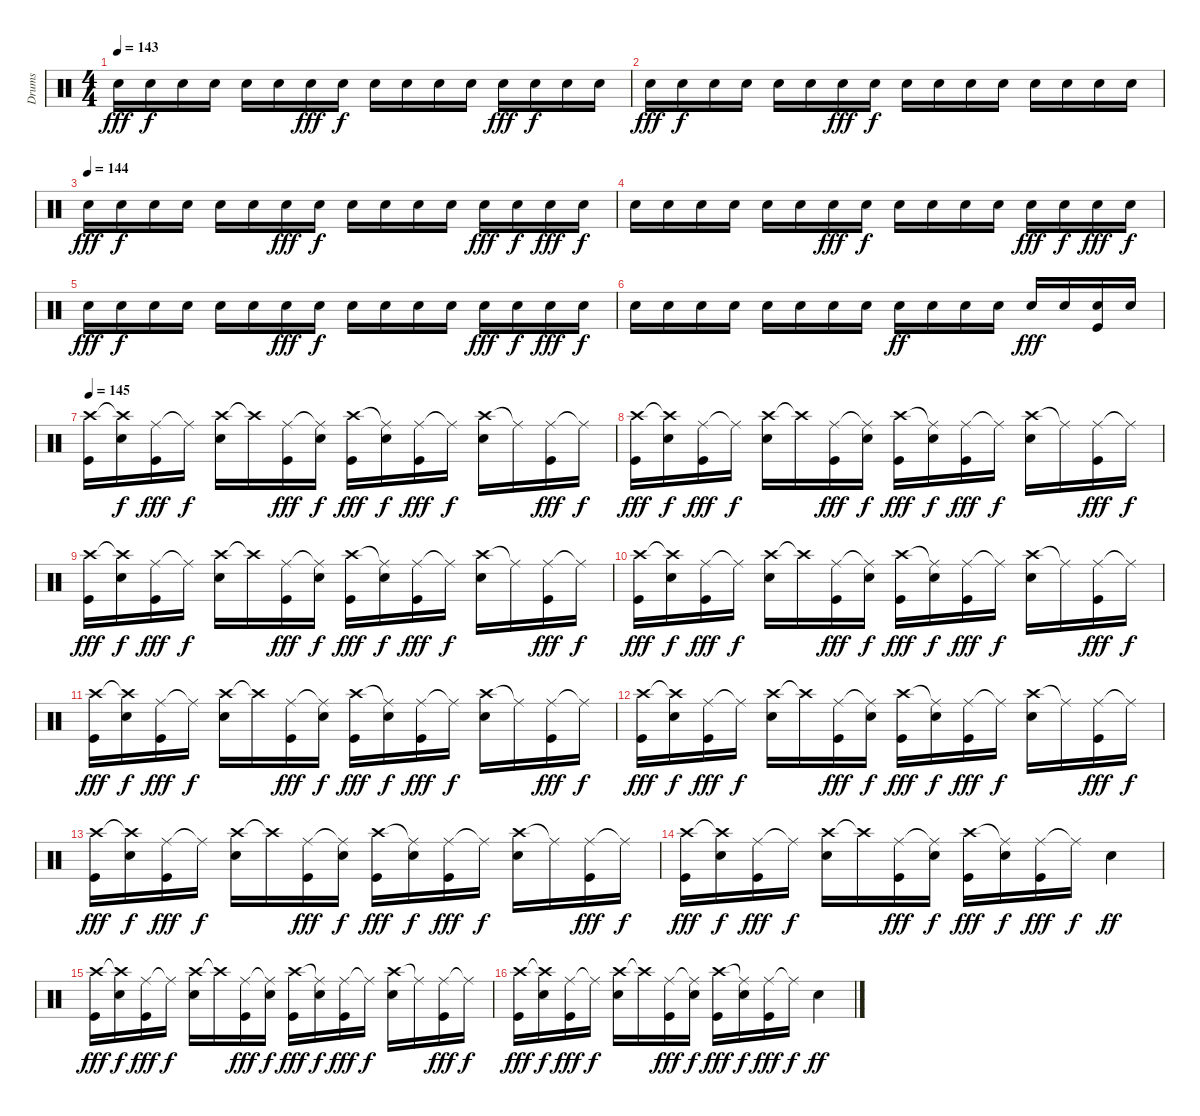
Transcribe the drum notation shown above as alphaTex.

\track ("Drums" "Drums") {instrument percussion}
\staff {score}
\articulation defaults
\ts (4 4)
\tempo 143
\clef neutral
\ks c "Snare (hit) 2".16{dy fff volume 11} "Snare (hit) 2".16{dy f} "Snare (hit) 2".16 "Snare (hit) 2".16 "Snare (hit) 2".16 "Snare (hit) 2".16 "Snare (hit) 2".16{dy fff} "Snare (hit) 2".16{dy f} "Snare (hit) 2".16 "Snare (hit) 2".16 "Snare (hit) 2".16 "Snare (hit) 2".16 "Snare (hit) 2".16{dy fff} "Snare (hit) 2".16{dy f} "Snare (hit) 2".16 "Snare (hit) 2".16
|
"Snare (hit) 2".16{dy fff} "Snare (hit) 2".16{dy f} "Snare (hit) 2".16 "Snare (hit) 2".16 "Snare (hit) 2".16 "Snare (hit) 2".16 "Snare (hit) 2".16{dy fff} "Snare (hit) 2".16{dy f} "Snare (hit) 2".16 "Snare (hit) 2".16 "Snare (hit) 2".16 "Snare (hit) 2".16 "Snare (hit) 2".16 "Snare (hit) 2".16 "Snare (hit) 2".16 "Snare (hit) 2".16 |
\tempo (144)
"Snare (hit) 2".16{dy fff} "Snare (hit) 2".16{dy f} "Snare (hit) 2".16 "Snare (hit) 2".16 "Snare (hit) 2".16 "Snare (hit) 2".16 "Snare (hit) 2".16{dy fff} "Snare (hit) 2".16{dy f} "Snare (hit) 2".16 "Snare (hit) 2".16 "Snare (hit) 2".16 "Snare (hit) 2".16 "Snare (hit) 2".16{dy fff} "Snare (hit) 2".16{dy f} "Snare (hit) 2".16{dy fff} "Snare (hit) 2".16{dy f} |
"Snare (hit) 2".16 "Snare (hit) 2".16 "Snare (hit) 2".16 "Snare (hit) 2".16 "Snare (hit) 2".16 "Snare (hit) 2".16 "Snare (hit) 2".16{dy fff} "Snare (hit) 2".16{dy f} "Snare (hit) 2".16 "Snare (hit) 2".16 "Snare (hit) 2".16 "Snare (hit) 2".16 "Snare (hit) 2".16{dy fff} "Snare (hit) 2".16{dy f} "Snare (hit) 2".16{dy fff} "Snare (hit) 2".16{dy f} |
"Snare (hit) 2".16{dy fff volume 12} "Snare (hit) 2".16{dy f} "Snare (hit) 2".16 "Snare (hit) 2".16 "Snare (hit) 2".16 "Snare (hit) 2".16 "Snare (hit) 2".16{dy fff} "Snare (hit) 2".16{dy f} "Snare (hit) 2".16 "Snare (hit) 2".16 "Snare (hit) 2".16 "Snare (hit) 2".16 "Snare (hit) 2".16{dy fff} "Snare (hit) 2".16{dy f} "Snare (hit) 2".16{dy fff} "Snare (hit) 2".16{dy f} |
"Snare (hit) 2".16 "Snare (hit) 2".16 "Snare (hit) 2".16 "Snare (hit) 2".16 "Snare (hit) 2".16 "Snare (hit) 2".16 "Snare (hit) 2".16 "Snare (hit) 2".16 "Snare (hit) 2".16{dy ff} "Snare (hit) 2".16 "Snare (hit) 2".16 "Snare (hit) 2".16 "Snare (hit) 2".16{dy fff} "Snare (hit) 2".16 ("Snare (hit) 2" "Kick (hit)").16 "Snare (hit) 2".16 |
\tempo 145
("Crash high (hit)" "Kick (hit)").16 ("Crash high (hit)"{t} "Snare (hit) 2").16{dy f} ("Ride (middle)" "Kick (hit)").16{dy fff} "Ride (middle)"{t}.16{dy f} ("Crash high (hit)" "Snare (hit) 2").16 "Crash high (hit)"{t}.16 ("Ride (middle)" "Kick (hit)").16{dy fff} ("Ride (middle)"{t} "Snare (hit) 2").16{dy f} ("Crash high (hit)" "Kick (hit)").16{dy fff} ("Ride (middle)"{t} "Snare (hit) 2").16{dy f} ("Ride (middle)" "Kick (hit)").16{dy fff} "Ride (middle)"{t}.16{dy f} ("Crash high (hit)" "Snare (hit) 2").16 "Ride (middle)"{t}.16 ("Ride (middle)" "Kick (hit)").16{dy fff} "Ride (middle)"{t}.16{dy f} |
("Crash high (hit)" "Kick (hit)").16{dy fff} ("Crash high (hit)"{t} "Snare (hit) 2").16{dy f} ("Ride (middle)" "Kick (hit)").16{dy fff} "Ride (middle)"{t}.16{dy f} ("Crash high (hit)" "Snare (hit) 2").16 "Crash high (hit)"{t}.16 ("Ride (middle)" "Kick (hit)").16{dy fff} ("Ride (middle)"{t} "Snare (hit) 2").16{dy f} ("Crash high (hit)" "Kick (hit)").16{dy fff} ("Ride (middle)"{t} "Snare (hit) 2").16{dy f} ("Ride (middle)" "Kick (hit)").16{dy fff} "Ride (middle)"{t}.16{dy f} ("Crash high (hit)" "Snare (hit) 2").16 "Ride (middle)"{t}.16 ("Ride (middle)" "Kick (hit)").16{dy fff} "Ride (middle)"{t}.16{dy f} |
("Crash high (hit)" "Kick (hit)").16{dy fff} ("Crash high (hit)"{t} "Snare (hit) 2").16{dy f} ("Ride (middle)" "Kick (hit)").16{dy fff} "Ride (middle)"{t}.16{dy f} ("Crash high (hit)" "Snare (hit) 2").16 "Crash high (hit)"{t}.16 ("Ride (middle)" "Kick (hit)").16{dy fff} ("Ride (middle)"{t} "Snare (hit) 2").16{dy f} ("Crash high (hit)" "Kick (hit)").16{dy fff} ("Ride (middle)"{t} "Snare (hit) 2").16{dy f} ("Ride (middle)" "Kick (hit)").16{dy fff} "Ride (middle)"{t}.16{dy f} ("Crash high (hit)" "Snare (hit) 2").16 "Ride (middle)"{t}.16 ("Ride (middle)" "Kick (hit)").16{dy fff} "Ride (middle)"{t}.16{dy f} |
("Crash high (hit)" "Kick (hit)").16{dy fff} ("Crash high (hit)"{t} "Snare (hit) 2").16{dy f} ("Ride (middle)" "Kick (hit)").16{dy fff} "Ride (middle)"{t}.16{dy f} ("Crash high (hit)" "Snare (hit) 2").16 "Crash high (hit)"{t}.16 ("Ride (middle)" "Kick (hit)").16{dy fff} ("Ride (middle)"{t} "Snare (hit) 2").16{dy f} ("Crash high (hit)" "Kick (hit)").16{dy fff} ("Ride (middle)"{t} "Snare (hit) 2").16{dy f} ("Ride (middle)" "Kick (hit)").16{dy fff} "Ride (middle)"{t}.16{dy f} ("Crash high (hit)" "Snare (hit) 2").16 "Ride (middle)"{t}.16 ("Ride (middle)" "Kick (hit)").16{dy fff} "Ride (middle)"{t}.16{dy f} |
("Crash high (hit)" "Kick (hit)").16{dy fff} ("Crash high (hit)"{t} "Snare (hit) 2").16{dy f} ("Ride (middle)" "Kick (hit)").16{dy fff} "Ride (middle)"{t}.16{dy f} ("Crash high (hit)" "Snare (hit) 2").16 "Crash high (hit)"{t}.16 ("Ride (middle)" "Kick (hit)").16{dy fff} ("Ride (middle)"{t} "Snare (hit) 2").16{dy f} ("Crash high (hit)" "Kick (hit)").16{dy fff} ("Ride (middle)"{t} "Snare (hit) 2").16{dy f} ("Ride (middle)" "Kick (hit)").16{dy fff} "Ride (middle)"{t}.16{dy f} ("Crash high (hit)" "Snare (hit) 2").16 "Ride (middle)"{t}.16 ("Ride (middle)" "Kick (hit)").16{dy fff} "Ride (middle)"{t}.16{dy f} |
("Crash high (hit)" "Kick (hit)").16{dy fff} ("Crash high (hit)"{t} "Snare (hit) 2").16{dy f} ("Ride (middle)" "Kick (hit)").16{dy fff} "Ride (middle)"{t}.16{dy f} ("Crash high (hit)" "Snare (hit) 2").16 "Crash high (hit)"{t}.16 ("Ride (middle)" "Kick (hit)").16{dy fff} ("Ride (middle)"{t} "Snare (hit) 2").16{dy f} ("Crash high (hit)" "Kick (hit)").16{dy fff} ("Ride (middle)"{t} "Snare (hit) 2").16{dy f} ("Ride (middle)" "Kick (hit)").16{dy fff} "Ride (middle)"{t}.16{dy f} ("Crash high (hit)" "Snare (hit) 2").16 "Ride (middle)"{t}.16 ("Ride (middle)" "Kick (hit)").16{dy fff} "Ride (middle)"{t}.16{dy f} |
("Crash high (hit)" "Kick (hit)").16{dy fff} ("Crash high (hit)"{t} "Snare (hit) 2").16{dy f} ("Ride (middle)" "Kick (hit)").16{dy fff} "Ride (middle)"{t}.16{dy f} ("Crash high (hit)" "Snare (hit) 2").16 "Crash high (hit)"{t}.16 ("Ride (middle)" "Kick (hit)").16{dy fff} ("Ride (middle)"{t} "Snare (hit) 2").16{dy f} ("Crash high (hit)" "Kick (hit)").16{dy fff} ("Ride (middle)"{t} "Snare (hit) 2").16{dy f} ("Ride (middle)" "Kick (hit)").16{dy fff} "Ride (middle)"{t}.16{dy f} ("Crash high (hit)" "Snare (hit) 2").16 "Ride (middle)"{t}.16 ("Ride (middle)" "Kick (hit)").16{dy fff} "Ride (middle)"{t}.16{dy f} |
("Crash high (hit)" "Kick (hit)").16{dy fff} ("Crash high (hit)"{t} "Snare (hit) 2").16{dy f} ("Ride (middle)" "Kick (hit)").16{dy fff} "Ride (middle)"{t}.16{dy f} ("Crash high (hit)" "Snare (hit) 2").16 "Crash high (hit)"{t}.16 ("Ride (middle)" "Kick (hit)").16{dy fff} ("Ride (middle)"{t} "Snare (hit) 2").16{dy f} ("Crash high (hit)" "Kick (hit)").16{dy fff} ("Ride (middle)"{t} "Snare (hit) 2").16{dy f} ("Ride (middle)" "Kick (hit)").16{dy fff} "Ride (middle)"{t}.16{dy f} "Snare (hit) 2".4{dy ff} |
("Crash high (hit)" "Kick (hit)").16{dy fff} ("Crash high (hit)"{t} "Snare (hit) 2").16{dy f} ("Ride (middle)" "Kick (hit)").16{dy fff} "Ride (middle)"{t}.16{dy f} ("Crash high (hit)" "Snare (hit) 2").16 "Crash high (hit)"{t}.16 ("Ride (middle)" "Kick (hit)").16{dy fff} ("Ride (middle)"{t} "Snare (hit) 2").16{dy f} ("Crash high (hit)" "Kick (hit)").16{dy fff} ("Ride (middle)"{t} "Snare (hit) 2").16{dy f} ("Ride (middle)" "Kick (hit)").16{dy fff} "Ride (middle)"{t}.16{dy f} ("Crash high (hit)" "Snare (hit) 2").16 "Ride (middle)"{t}.16 ("Ride (middle)" "Kick (hit)").16{dy fff} "Ride (middle)"{t}.16{dy f} |
("Crash high (hit)" "Kick (hit)").16{dy fff} ("Crash high (hit)"{t} "Snare (hit) 2").16{dy f} ("Ride (middle)" "Kick (hit)").16{dy fff} "Ride (middle)"{t}.16{dy f} ("Crash high (hit)" "Snare (hit) 2").16 "Crash high (hit)"{t}.16 ("Ride (middle)" "Kick (hit)").16{dy fff} ("Ride (middle)"{t} "Snare (hit) 2").16{dy f} ("Crash high (hit)" "Kick (hit)").16{dy fff} ("Ride (middle)"{t} "Snare (hit) 2").16{dy f} ("Ride (middle)" "Kick (hit)").16{dy fff} "Ride (middle)"{t}.16{dy f} "Snare (hit) 2".4{dy ff}
